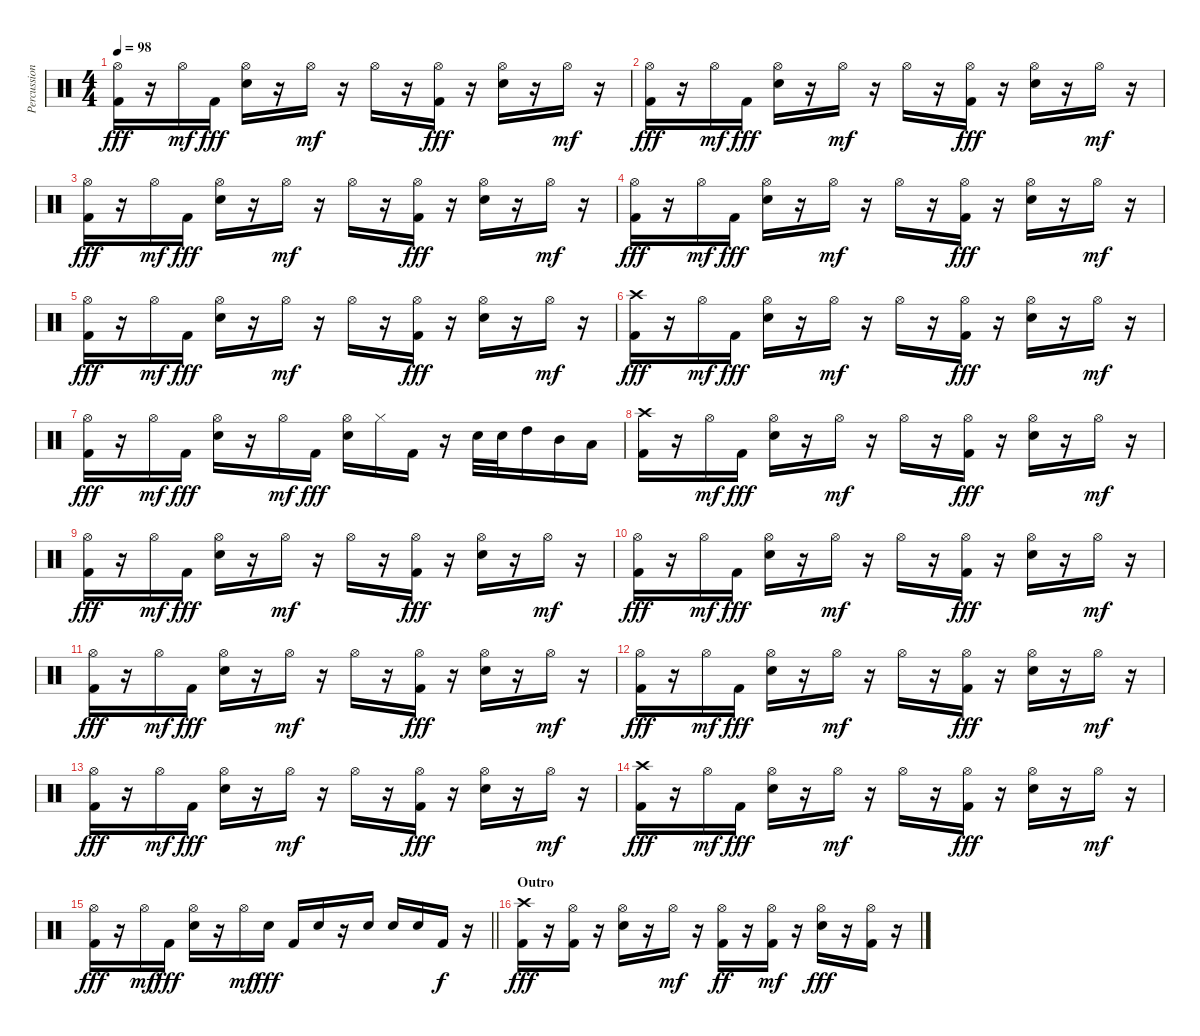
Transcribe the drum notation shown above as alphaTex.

\track ("Percussion" "Percussion") {instrument percussion}
\staff {score}
\articulation defaults
\ts (4 4)
\tempo 98
\clef neutral
\ks c
("Hi-Hat (open)" "Kick (hit) 2").16{dy fff} r.16 "Hi-Hat (open)".16{dy mf} "Kick (hit) 2".16{dy fff} ("Hi-Hat (open)" "Electric Snare (hit)").16 r.16 "Hi-Hat (open)".16{dy mf} r.16 "Hi-Hat (open)".16 r.16 ("Hi-Hat (open)" "Kick (hit) 2").16{dy fff} r.16 ("Hi-Hat (open)" "Electric Snare (hit)").16 r.16 "Hi-Hat (open)".16{dy mf} r.16 |
("Hi-Hat (open)" "Kick (hit) 2").16{dy fff} r.16 "Hi-Hat (open)".16{dy mf} "Kick (hit) 2".16{dy fff} ("Hi-Hat (open)" "Electric Snare (hit)").16 r.16 "Hi-Hat (open)".16{dy mf} r.16 "Hi-Hat (open)".16 r.16 ("Hi-Hat (open)" "Kick (hit) 2").16{dy fff} r.16 ("Hi-Hat (open)" "Electric Snare (hit)").16 r.16 "Hi-Hat (open)".16{dy mf} r.16 |
("Hi-Hat (open)" "Kick (hit) 2").16{dy fff} r.16 "Hi-Hat (open)".16{dy mf} "Kick (hit) 2".16{dy fff} ("Hi-Hat (open)" "Electric Snare (hit)").16 r.16 "Hi-Hat (open)".16{dy mf} r.16 "Hi-Hat (open)".16 r.16 ("Hi-Hat (open)" "Kick (hit) 2").16{dy fff} r.16 ("Hi-Hat (open)" "Electric Snare (hit)").16 r.16 "Hi-Hat (open)".16{dy mf} r.16 |
("Hi-Hat (open)" "Kick (hit) 2").16{dy fff} r.16 "Hi-Hat (open)".16{dy mf} "Kick (hit) 2".16{dy fff} ("Hi-Hat (open)" "Electric Snare (hit)").16 r.16 "Hi-Hat (open)".16{dy mf} r.16 "Hi-Hat (open)".16 r.16 ("Hi-Hat (open)" "Kick (hit) 2").16{dy fff} r.16 ("Hi-Hat (open)" "Electric Snare (hit)").16 r.16 "Hi-Hat (open)".16{dy mf} r.16 |
("Hi-Hat (open)" "Kick (hit) 2").16{dy fff} r.16 "Hi-Hat (open)".16{dy mf} "Kick (hit) 2".16{dy fff} ("Hi-Hat (open)" "Electric Snare (hit)").16 r.16 "Hi-Hat (open)".16{dy mf} r.16 "Hi-Hat (open)".16 r.16 ("Hi-Hat (open)" "Kick (hit) 2").16{dy fff} r.16 ("Hi-Hat (open)" "Electric Snare (hit)").16 r.16 "Hi-Hat (open)".16{dy mf} r.16 |
("Crash high (hit)" "Kick (hit) 2").16{dy fff} r.16 "Hi-Hat (open)".16{dy mf} "Kick (hit) 2".16{dy fff} ("Hi-Hat (open)" "Electric Snare (hit)").16 r.16 "Hi-Hat (open)".16{dy mf} r.16 "Hi-Hat (open)".16 r.16 ("Hi-Hat (open)" "Kick (hit) 2").16{dy fff} r.16 ("Hi-Hat (open)" "Electric Snare (hit)").16 r.16 "Hi-Hat (open)".16{dy mf} r.16 |
("Hi-Hat (open)" "Kick (hit) 2").16{dy fff} r.16 "Hi-Hat (open)".16{dy mf} "Kick (hit) 2".16{dy fff} ("Hi-Hat (open)" "Electric Snare (hit)").16 r.16 "Hi-Hat (open)".16{dy mf} "Kick (hit) 2".16{dy fff} ("Hi-Hat (open)" "Electric Snare (hit)").16 "Hi-Hat (closed)".16 "Kick (hit) 2".16 r.16 "Electric Snare (hit)".32 "Electric Snare (hit)".32 "High Tom (hit)".16 "Mid Tom (hit)".16 "Low Tom (hit)".16 |
("Crash high (hit)" "Kick (hit) 2").16 r.16 "Hi-Hat (open)".16{dy mf} "Kick (hit) 2".16{dy fff} ("Hi-Hat (open)" "Electric Snare (hit)").16 r.16 "Hi-Hat (open)".16{dy mf} r.16 "Hi-Hat (open)".16 r.16 ("Hi-Hat (open)" "Kick (hit) 2").16{dy fff} r.16 ("Hi-Hat (open)" "Electric Snare (hit)").16 r.16 "Hi-Hat (open)".16{dy mf} r.16 |
("Hi-Hat (open)" "Kick (hit) 2").16{dy fff} r.16 "Hi-Hat (open)".16{dy mf} "Kick (hit) 2".16{dy fff} ("Hi-Hat (open)" "Electric Snare (hit)").16 r.16 "Hi-Hat (open)".16{dy mf} r.16 "Hi-Hat (open)".16 r.16 ("Hi-Hat (open)" "Kick (hit) 2").16{dy fff} r.16 ("Hi-Hat (open)" "Electric Snare (hit)").16 r.16 "Hi-Hat (open)".16{dy mf} r.16 |
("Hi-Hat (open)" "Kick (hit) 2").16{dy fff} r.16 "Hi-Hat (open)".16{dy mf} "Kick (hit) 2".16{dy fff} ("Hi-Hat (open)" "Electric Snare (hit)").16 r.16 "Hi-Hat (open)".16{dy mf} r.16 "Hi-Hat (open)".16 r.16 ("Hi-Hat (open)" "Kick (hit) 2").16{dy fff} r.16 ("Hi-Hat (open)" "Electric Snare (hit)").16 r.16 "Hi-Hat (open)".16{dy mf} r.16 |
("Hi-Hat (open)" "Kick (hit) 2").16{dy fff} r.16 "Hi-Hat (open)".16{dy mf} "Kick (hit) 2".16{dy fff} ("Hi-Hat (open)" "Electric Snare (hit)").16 r.16 "Hi-Hat (open)".16{dy mf} r.16 "Hi-Hat (open)".16 r.16 ("Hi-Hat (open)" "Kick (hit) 2").16{dy fff} r.16 ("Hi-Hat (open)" "Electric Snare (hit)").16 r.16 "Hi-Hat (open)".16{dy mf} r.16 |
("Hi-Hat (open)" "Kick (hit) 2").16{dy fff} r.16 "Hi-Hat (open)".16{dy mf} "Kick (hit) 2".16{dy fff} ("Hi-Hat (open)" "Electric Snare (hit)").16 r.16 "Hi-Hat (open)".16{dy mf} r.16 "Hi-Hat (open)".16 r.16 ("Hi-Hat (open)" "Kick (hit) 2").16{dy fff} r.16 ("Hi-Hat (open)" "Electric Snare (hit)").16 r.16 "Hi-Hat (open)".16{dy mf} r.16 |
("Hi-Hat (open)" "Kick (hit) 2").16{dy fff} r.16 "Hi-Hat (open)".16{dy mf} "Kick (hit) 2".16{dy fff} ("Hi-Hat (open)" "Electric Snare (hit)").16 r.16 "Hi-Hat (open)".16{dy mf} r.16 "Hi-Hat (open)".16 r.16 ("Hi-Hat (open)" "Kick (hit) 2").16{dy fff} r.16 ("Hi-Hat (open)" "Electric Snare (hit)").16 r.16 "Hi-Hat (open)".16{dy mf} r.16 |
("Crash high (hit)" "Kick (hit) 2").16{dy fff} r.16 "Hi-Hat (open)".16{dy mf} "Kick (hit) 2".16{dy fff} ("Hi-Hat (open)" "Electric Snare (hit)").16 r.16 "Hi-Hat (open)".16{dy mf} r.16 "Hi-Hat (open)".16 r.16 ("Hi-Hat (open)" "Kick (hit) 2").16{dy fff} r.16 ("Hi-Hat (open)" "Electric Snare (hit)").16 r.16 "Hi-Hat (open)".16{dy mf} r.16 |
\barLineRight lightlight
("Hi-Hat (open)" "Kick (hit) 2").16{dy fff} r.16 "Hi-Hat (open)".16{dy mf} "Kick (hit) 2".16{dy fff} ("Hi-Hat (open)" "Electric Snare (hit)").16 r.16 "Hi-Hat (open)".16{dy mf} "Electric Snare (hit)".16{dy fff} "Kick (hit) 2".16 "Electric Snare (hit)".16 r.16 "Electric Snare (hit)".16 "Electric Snare (hit)".16 "Electric Snare (hit)".16 "Kick (hit) 2".16{dy f} r.16 |
\section ("" "Outro")
("Crash high (hit)" "Kick (hit) 2").16{dy fff} r.16 ("Hi-Hat (open)" "Kick (hit) 2").16 r.16 ("Hi-Hat (open)" "Electric Snare (hit)").16 r.16 "Hi-Hat (open)".16{dy mf} r.16 ("Hi-Hat (open)" "Kick (hit) 2").16{dy ff} r.16 ("Hi-Hat (open)" "Kick (hit) 2").16{dy mf} r.16 ("Hi-Hat (open)" "Electric Snare (hit)").16{dy fff} r.16 ("Hi-Hat (open)" "Kick (hit) 2").16 r.16
